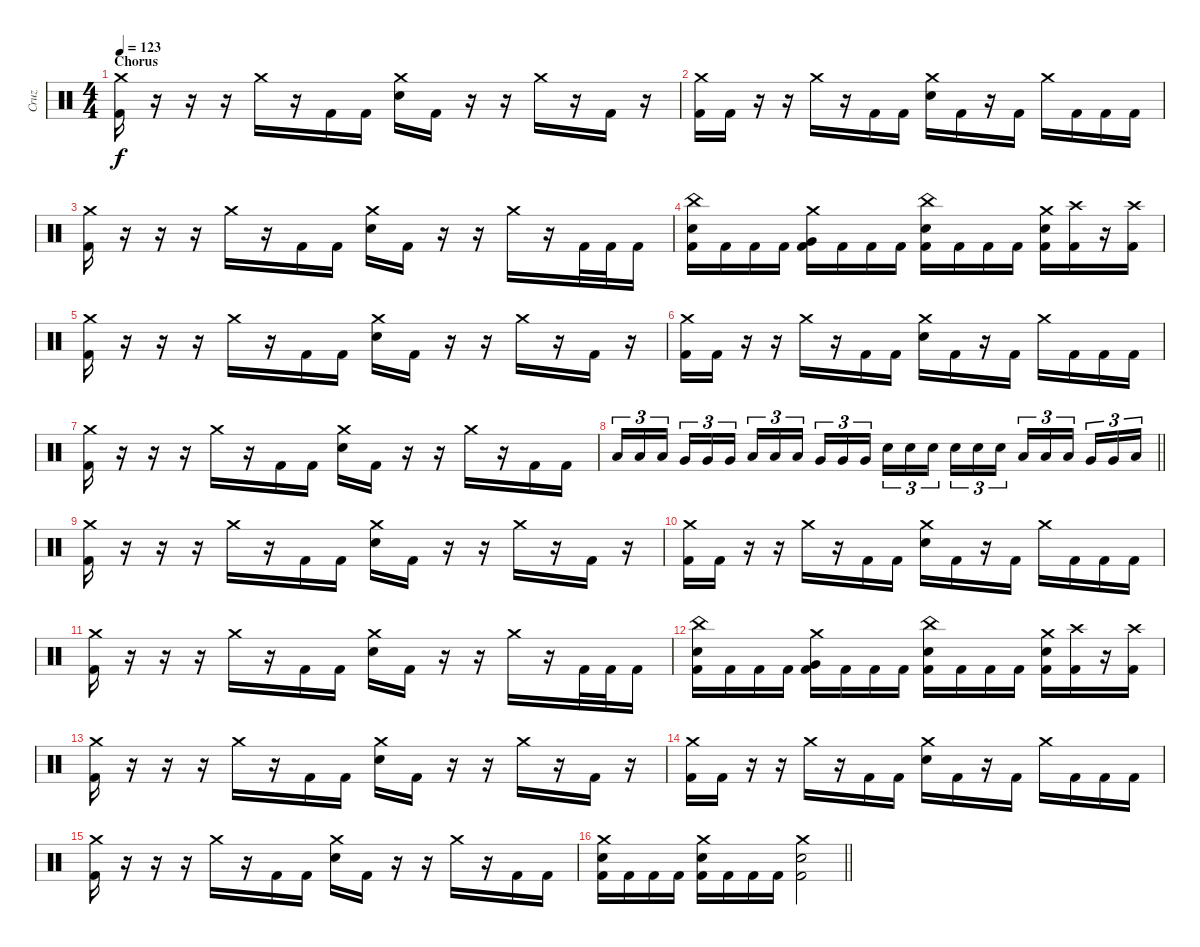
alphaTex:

\track ("Cruz" "Cruz") {instrument percussion}
\staff {score}
\articulation defaults
\ts (4 4)
\section ("" "Chorus")
\tempo 123
\clef neutral
\ks c
("Crash medium (hit)" "Kick (hit) 2").16{dy f} r.16 r.16 r.16 "Crash medium (hit)".16 r.16 "Kick (hit) 2".16 "Kick (hit) 2".16 ("Crash medium (hit)" "Snare (hit) 2").16 "Kick (hit) 2".16 r.16 r.16 "Crash medium (hit)".16 r.16 "Kick (hit) 2".16 r.16 |
("Crash medium (hit)" "Kick (hit) 2").16 "Kick (hit) 2".16 r.16 r.16 "Crash medium (hit)".16 r.16 "Kick (hit) 2".16 "Kick (hit) 2".16 ("Crash medium (hit)" "Snare (hit) 2").16 "Kick (hit) 2".16 r.16 "Kick (hit) 2".16 "Crash medium (hit)".16 "Kick (hit) 2".16 "Kick (hit) 2".16 "Kick (hit) 2".16 |
("Crash medium (hit)" "Kick (hit) 2").16 r.16 r.16 r.16 "Crash medium (hit)".16 r.16 "Kick (hit) 2".16 "Kick (hit) 2".16 ("Crash medium (hit)" "Snare (hit) 2").16 "Kick (hit) 2".16 r.16 r.16 "Crash medium (hit)".16 r.16 "Kick (hit) 2".32 "Kick (hit) 2".32 "Kick (hit) 2".16 |
("China (hit)" "Snare (hit) 2" "Kick (hit) 2").16 "Kick (hit) 2".16 "Kick (hit) 2".16 "Kick (hit) 2".16 ("Crash medium (hit)" "Very Low Tom (hit)" "Kick (hit) 2").16 "Kick (hit) 2".16 "Kick (hit) 2".16 "Kick (hit) 2".16 ("China (hit)" "Snare (hit) 2" "Kick (hit) 2").16 "Kick (hit) 2".16 "Kick (hit) 2".16 "Kick (hit) 2".16 ("Crash medium (hit)" "Snare (hit) 2" "Kick (hit) 2").16 ("Crash high (hit)" "Kick (hit) 2").16 r.16 ("Crash high (hit)" "Kick (hit) 2").16 |
("Crash medium (hit)" "Kick (hit) 2").16 r.16 r.16 r.16 "Crash medium (hit)".16 r.16 "Kick (hit) 2".16 "Kick (hit) 2".16 ("Crash medium (hit)" "Snare (hit) 2").16 "Kick (hit) 2".16 r.16 r.16 "Crash medium (hit)".16 r.16 "Kick (hit) 2".16 r.16 |
("Crash medium (hit)" "Kick (hit) 2").16 "Kick (hit) 2".16 r.16 r.16 "Crash medium (hit)".16 r.16 "Kick (hit) 2".16 "Kick (hit) 2".16 ("Crash medium (hit)" "Snare (hit) 2").16 "Kick (hit) 2".16 r.16 "Kick (hit) 2".16 "Crash medium (hit)".16 "Kick (hit) 2".16 "Kick (hit) 2".16 "Kick (hit) 2".16 |
("Crash medium (hit)" "Kick (hit) 2").16 r.16 r.16 r.16 "Crash medium (hit)".16 r.16 "Kick (hit) 2".16 "Kick (hit) 2".16 ("Crash medium (hit)" "Snare (hit) 2").16 "Kick (hit) 2".16 r.16 r.16 "Crash medium (hit)".16 r.16 "Kick (hit) 2".16 "Kick (hit) 2".16 |
\barLineRight lightlight "Low Floor Tom (hit)".16{tu (3 2)} "Low Floor Tom (hit)".16{tu (3 2)} "Low Floor Tom (hit)".16{tu (3 2) beam splitsecondary} "Very Low Tom (hit)".16{tu (3 2)} "Very Low Tom (hit)".16{tu (3 2)} "Very Low Tom (hit)".16{tu (3 2)} "Low Tom (hit)".16{tu (3 2)} "Low Tom (hit)".16{tu (3 2)} "Low Tom (hit)".16{tu (3 2) beam splitsecondary} "Very Low Tom (hit)".16{tu (3 2)} "Very Low Tom (hit)".16{tu (3 2)} "Very Low Tom (hit)".16{tu (3 2)} "Snare (hit) 2".16{tu (3 2)} "Snare (hit) 2".16{tu (3 2)} "Snare (hit) 2".16{tu (3 2) beam splitsecondary} "Snare (hit) 2".16{tu (3 2)} "Snare (hit) 2".16{tu (3 2)} "Snare (hit) 2".16{tu (3 2)} "Low Tom (hit)".16{tu (3 2)} "Low Tom (hit)".16{tu (3 2)} "Low Tom (hit)".16{tu (3 2) beam splitsecondary} "Very Low Tom (hit)".16{tu (3 2)} "Very Low Tom (hit)".16{tu (3 2)} "Low Floor Tom (hit)".16{tu (3 2)}
|
("Crash medium (hit)" "Kick (hit) 2").16 r.16 r.16 r.16 "Crash medium (hit)".16 r.16 "Kick (hit) 2".16 "Kick (hit) 2".16 ("Crash medium (hit)" "Snare (hit) 2").16 "Kick (hit) 2".16 r.16 r.16 "Crash medium (hit)".16 r.16 "Kick (hit) 2".16 r.16 |
("Crash medium (hit)" "Kick (hit) 2").16 "Kick (hit) 2".16 r.16 r.16 "Crash medium (hit)".16 r.16 "Kick (hit) 2".16 "Kick (hit) 2".16 ("Crash medium (hit)" "Snare (hit) 2").16 "Kick (hit) 2".16 r.16 "Kick (hit) 2".16 "Crash medium (hit)".16 "Kick (hit) 2".16 "Kick (hit) 2".16 "Kick (hit) 2".16 |
("Crash medium (hit)" "Kick (hit) 2").16 r.16 r.16 r.16 "Crash medium (hit)".16 r.16 "Kick (hit) 2".16 "Kick (hit) 2".16 ("Crash medium (hit)" "Snare (hit) 2").16 "Kick (hit) 2".16 r.16 r.16 "Crash medium (hit)".16 r.16 "Kick (hit) 2".32 "Kick (hit) 2".32 "Kick (hit) 2".16 |
("China (hit)" "Snare (hit) 2" "Kick (hit) 2").16 "Kick (hit) 2".16 "Kick (hit) 2".16 "Kick (hit) 2".16 ("Crash medium (hit)" "Very Low Tom (hit)" "Kick (hit) 2").16 "Kick (hit) 2".16 "Kick (hit) 2".16 "Kick (hit) 2".16 ("China (hit)" "Snare (hit) 2" "Kick (hit) 2").16 "Kick (hit) 2".16 "Kick (hit) 2".16 "Kick (hit) 2".16 ("Crash medium (hit)" "Snare (hit) 2" "Kick (hit) 2").16 ("Crash high (hit)" "Kick (hit) 2").16 r.16 ("Crash high (hit)" "Kick (hit) 2").16 |
("Crash medium (hit)" "Kick (hit) 2").16 r.16 r.16 r.16 "Crash medium (hit)".16 r.16 "Kick (hit) 2".16 "Kick (hit) 2".16 ("Crash medium (hit)" "Snare (hit) 2").16 "Kick (hit) 2".16 r.16 r.16 "Crash medium (hit)".16 r.16 "Kick (hit) 2".16 r.16 |
("Crash medium (hit)" "Kick (hit) 2").16 "Kick (hit) 2".16 r.16 r.16 "Crash medium (hit)".16 r.16 "Kick (hit) 2".16 "Kick (hit) 2".16 ("Crash medium (hit)" "Snare (hit) 2").16 "Kick (hit) 2".16 r.16 "Kick (hit) 2".16 "Crash medium (hit)".16 "Kick (hit) 2".16 "Kick (hit) 2".16 "Kick (hit) 2".16 |
("Crash medium (hit)" "Kick (hit) 2").16 r.16 r.16 r.16 "Crash medium (hit)".16 r.16 "Kick (hit) 2".16 "Kick (hit) 2".16 ("Crash medium (hit)" "Snare (hit) 2").16 "Kick (hit) 2".16 r.16 r.16 "Crash medium (hit)".16 r.16 "Kick (hit) 2".16 "Kick (hit) 2".16 |
\barLineRight lightlight
("Crash medium (hit)" "Snare (hit) 2" "Kick (hit) 2").16 "Kick (hit) 2".16 "Kick (hit) 2".16 "Kick (hit) 2".16 ("Crash medium (hit)" "Snare (hit) 2" "Kick (hit) 2").16 "Kick (hit) 2".16 "Kick (hit) 2".16 "Kick (hit) 2".16 ("Crash medium (hit)" "Snare (hit) 2" "Kick (hit) 2").2
